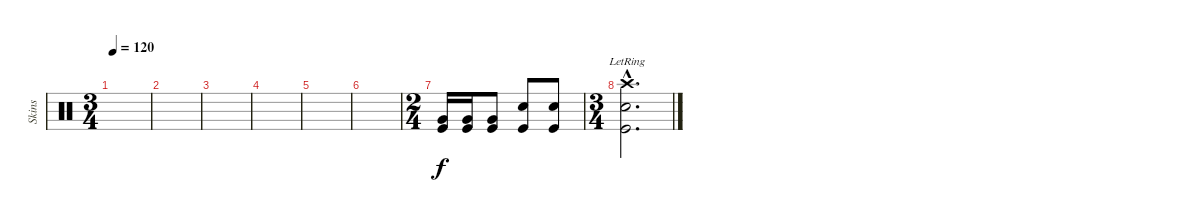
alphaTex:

\track ("Skins" "Skins") {instrument percussion}
\staff {score}
\articulation defaults
\ts (3 4)
\tempo 120
\clef neutral
\ks c
|
|
|
|
|
|
\ts (2 4)
("Very Low Tom (hit)" "Kick (hit)").16 ("Very Low Tom (hit)" "Kick (hit)").16 ("Very Low Tom (hit)" "Kick (hit)").8 ("Snare (hit) 2" "Kick (hit)").8 ("Snare (hit) 2" "Kick (hit)").8 |
\ts (3 4)
("Electric Snare (hit)"{hac lr} "Crash high (hit)"{hac lr} "Kick (hit)"{hac}).2{d}
